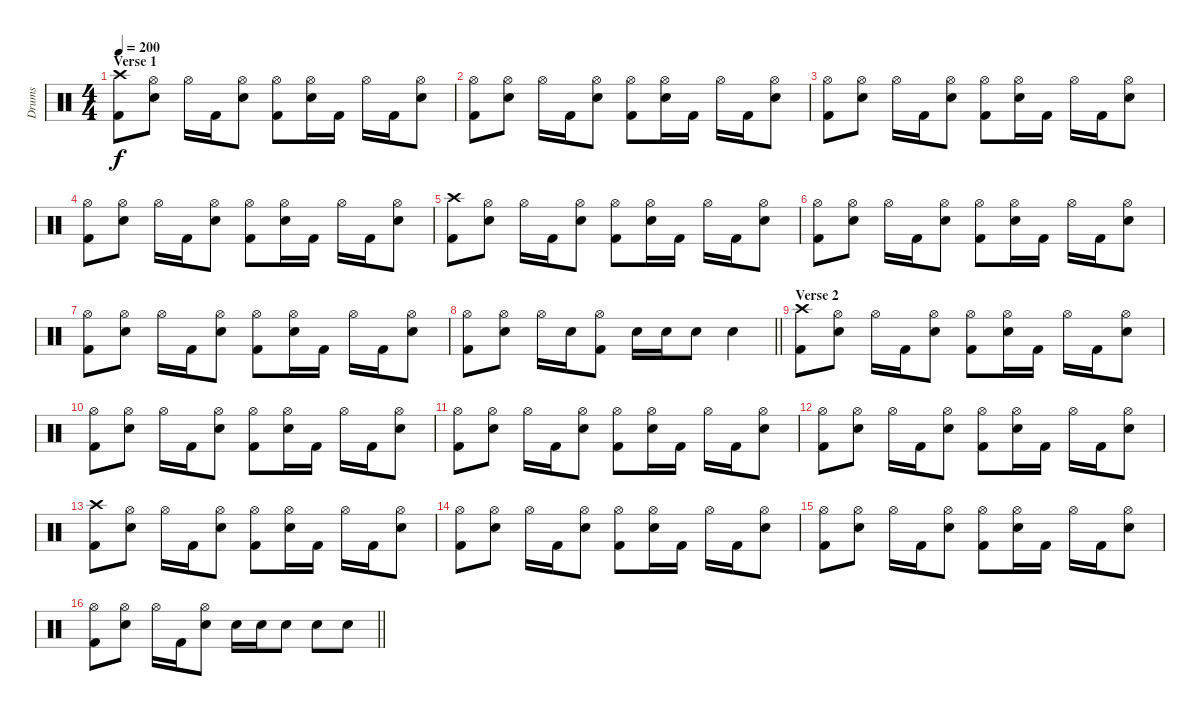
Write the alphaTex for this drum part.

\track ("Drums" "Drums") {instrument percussion}
\staff {score}
\articulation defaults
\ts (4 4)
\section ("" "Verse 1")
\tempo 200
\clef neutral
\ks c
("Crash high (hit)" "Kick (hit) 2").8{dy f} ("Hi-Hat (open)" "Electric Snare (hit)").8 "Hi-Hat (open)".16 "Kick (hit) 2".16 ("Hi-Hat (open)" "Electric Snare (hit)").8 ("Hi-Hat (open)" "Kick (hit) 2").8 ("Hi-Hat (open)" "Electric Snare (hit)").16 "Kick (hit) 2".16 "Hi-Hat (open)".16 "Kick (hit) 2".16 ("Hi-Hat (open)" "Electric Snare (hit)").8 |
("Hi-Hat (open)" "Kick (hit) 2").8 ("Hi-Hat (open)" "Electric Snare (hit)").8 "Hi-Hat (open)".16 "Kick (hit) 2".16 ("Hi-Hat (open)" "Electric Snare (hit)").8 ("Hi-Hat (open)" "Kick (hit) 2").8 ("Hi-Hat (open)" "Electric Snare (hit)").16 "Kick (hit) 2".16 "Hi-Hat (open)".16 "Kick (hit) 2".16 ("Hi-Hat (open)" "Electric Snare (hit)").8 |
("Hi-Hat (open)" "Kick (hit) 2").8 ("Hi-Hat (open)" "Electric Snare (hit)").8 "Hi-Hat (open)".16 "Kick (hit) 2".16 ("Hi-Hat (open)" "Electric Snare (hit)").8 ("Hi-Hat (open)" "Kick (hit) 2").8 ("Hi-Hat (open)" "Electric Snare (hit)").16 "Kick (hit) 2".16 "Hi-Hat (open)".16 "Kick (hit) 2".16 ("Hi-Hat (open)" "Electric Snare (hit)").8 |
("Hi-Hat (open)" "Kick (hit) 2").8 ("Hi-Hat (open)" "Electric Snare (hit)").8 "Hi-Hat (open)".16 "Kick (hit) 2".16 ("Hi-Hat (open)" "Electric Snare (hit)").8 ("Hi-Hat (open)" "Kick (hit) 2").8 ("Hi-Hat (open)" "Electric Snare (hit)").16 "Kick (hit) 2".16 "Hi-Hat (open)".16 "Kick (hit) 2".16 ("Hi-Hat (open)" "Electric Snare (hit)").8 |
("Crash high (hit)" "Kick (hit) 2").8 ("Hi-Hat (open)" "Electric Snare (hit)").8 "Hi-Hat (open)".16 "Kick (hit) 2".16 ("Hi-Hat (open)" "Electric Snare (hit)").8 ("Hi-Hat (open)" "Kick (hit) 2").8 ("Hi-Hat (open)" "Electric Snare (hit)").16 "Kick (hit) 2".16 "Hi-Hat (open)".16 "Kick (hit) 2".16 ("Hi-Hat (open)" "Electric Snare (hit)").8 |
("Hi-Hat (open)" "Kick (hit) 2").8 ("Hi-Hat (open)" "Electric Snare (hit)").8 "Hi-Hat (open)".16 "Kick (hit) 2".16 ("Hi-Hat (open)" "Electric Snare (hit)").8 ("Hi-Hat (open)" "Kick (hit) 2").8 ("Hi-Hat (open)" "Electric Snare (hit)").16 "Kick (hit) 2".16 "Hi-Hat (open)".16 "Kick (hit) 2".16 ("Hi-Hat (open)" "Electric Snare (hit)").8 |
("Hi-Hat (open)" "Kick (hit) 2").8 ("Hi-Hat (open)" "Electric Snare (hit)").8 "Hi-Hat (open)".16 "Kick (hit) 2".16 ("Hi-Hat (open)" "Electric Snare (hit)").8 ("Hi-Hat (open)" "Kick (hit) 2").8 ("Hi-Hat (open)" "Electric Snare (hit)").16 "Kick (hit) 2".16 "Hi-Hat (open)".16 "Kick (hit) 2".16 ("Hi-Hat (open)" "Electric Snare (hit)").8 |
\barLineRight lightlight
("Hi-Hat (open)" "Kick (hit) 2").8 ("Hi-Hat (open)" "Electric Snare (hit)").8 "Hi-Hat (open)".16 "Electric Snare (hit)".16 ("Hi-Hat (open)" "Kick (hit) 2").8 "Electric Snare (hit)".16 "Electric Snare (hit)".16 "Electric Snare (hit)".8 "Electric Snare (hit)".4 |
\section ("" "Verse 2")
("Crash high (hit)" "Kick (hit) 2").8 ("Hi-Hat (open)" "Electric Snare (hit)").8 "Hi-Hat (open)".16 "Kick (hit) 2".16 ("Hi-Hat (open)" "Electric Snare (hit)").8 ("Hi-Hat (open)" "Kick (hit) 2").8 ("Hi-Hat (open)" "Electric Snare (hit)").16 "Kick (hit) 2".16 "Hi-Hat (open)".16 "Kick (hit) 2".16 ("Hi-Hat (open)" "Electric Snare (hit)").8 |
("Hi-Hat (open)" "Kick (hit) 2").8 ("Hi-Hat (open)" "Electric Snare (hit)").8 "Hi-Hat (open)".16 "Kick (hit) 2".16 ("Hi-Hat (open)" "Electric Snare (hit)").8 ("Hi-Hat (open)" "Kick (hit) 2").8 ("Hi-Hat (open)" "Electric Snare (hit)").16 "Kick (hit) 2".16 "Hi-Hat (open)".16 "Kick (hit) 2".16 ("Hi-Hat (open)" "Electric Snare (hit)").8 |
("Hi-Hat (open)" "Kick (hit) 2").8 ("Hi-Hat (open)" "Electric Snare (hit)").8 "Hi-Hat (open)".16 "Kick (hit) 2".16 ("Hi-Hat (open)" "Electric Snare (hit)").8 ("Hi-Hat (open)" "Kick (hit) 2").8 ("Hi-Hat (open)" "Electric Snare (hit)").16 "Kick (hit) 2".16 "Hi-Hat (open)".16 "Kick (hit) 2".16 ("Hi-Hat (open)" "Electric Snare (hit)").8 |
("Hi-Hat (open)" "Kick (hit) 2").8 ("Hi-Hat (open)" "Electric Snare (hit)").8 "Hi-Hat (open)".16 "Kick (hit) 2".16 ("Hi-Hat (open)" "Electric Snare (hit)").8 ("Hi-Hat (open)" "Kick (hit) 2").8 ("Hi-Hat (open)" "Electric Snare (hit)").16 "Kick (hit) 2".16 "Hi-Hat (open)".16 "Kick (hit) 2".16 ("Hi-Hat (open)" "Electric Snare (hit)").8 |
("Crash high (hit)" "Kick (hit) 2").8 ("Hi-Hat (open)" "Electric Snare (hit)").8 "Hi-Hat (open)".16 "Kick (hit) 2".16 ("Hi-Hat (open)" "Electric Snare (hit)").8 ("Hi-Hat (open)" "Kick (hit) 2").8 ("Hi-Hat (open)" "Electric Snare (hit)").16 "Kick (hit) 2".16 "Hi-Hat (open)".16 "Kick (hit) 2".16 ("Hi-Hat (open)" "Electric Snare (hit)").8 |
("Hi-Hat (open)" "Kick (hit) 2").8 ("Hi-Hat (open)" "Electric Snare (hit)").8 "Hi-Hat (open)".16 "Kick (hit) 2".16 ("Hi-Hat (open)" "Electric Snare (hit)").8 ("Hi-Hat (open)" "Kick (hit) 2").8 ("Hi-Hat (open)" "Electric Snare (hit)").16 "Kick (hit) 2".16 "Hi-Hat (open)".16 "Kick (hit) 2".16 ("Hi-Hat (open)" "Electric Snare (hit)").8 |
("Hi-Hat (open)" "Kick (hit) 2").8 ("Hi-Hat (open)" "Electric Snare (hit)").8 "Hi-Hat (open)".16 "Kick (hit) 2".16 ("Hi-Hat (open)" "Electric Snare (hit)").8 ("Hi-Hat (open)" "Kick (hit) 2").8 ("Hi-Hat (open)" "Electric Snare (hit)").16 "Kick (hit) 2".16 "Hi-Hat (open)".16 "Kick (hit) 2".16 ("Hi-Hat (open)" "Electric Snare (hit)").8 |
\barLineRight lightlight
("Hi-Hat (open)" "Kick (hit) 2").8 ("Hi-Hat (open)" "Electric Snare (hit)").8 "Hi-Hat (open)".16 "Kick (hit) 2".16 ("Hi-Hat (open)" "Electric Snare (hit)").8 "Electric Snare (hit)".16 "Electric Snare (hit)".16 "Electric Snare (hit)".8 "Electric Snare (hit)".8 "Electric Snare (hit)".8
